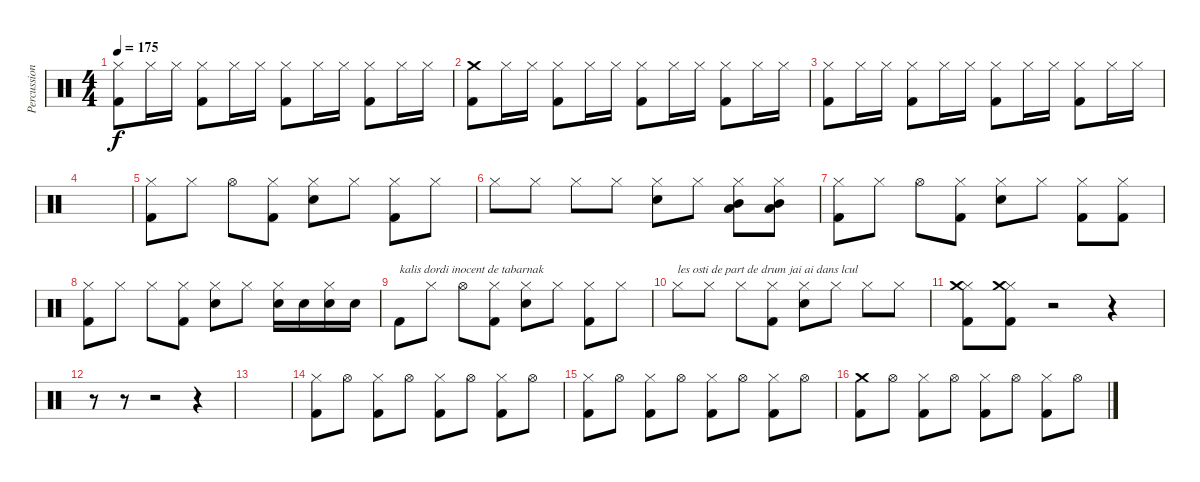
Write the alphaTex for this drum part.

\track ("Percussions" "Percussion") {instrument percussion}
\staff {score}
\articulation defaults
\ts (4 4)
\tempo 175
\clef neutral
\ks c
("Hi-Hat (closed)" "Kick (hit) 2").8{dy f} "Hi-Hat (closed)".16 "Hi-Hat (closed)".16 ("Hi-Hat (closed)" "Kick (hit) 2").8 "Hi-Hat (closed)".16 "Hi-Hat (closed)".16 ("Hi-Hat (closed)" "Kick (hit) 2").8 "Hi-Hat (closed)".16 "Hi-Hat (closed)".16 ("Hi-Hat (closed)" "Kick (hit) 2").8 "Hi-Hat (closed)".16 "Hi-Hat (closed)".16 |
("Crash medium (hit)" "Kick (hit) 2").8 "Hi-Hat (closed)".16 "Hi-Hat (closed)".16 ("Hi-Hat (closed)" "Kick (hit) 2").8 "Hi-Hat (closed)".16 "Hi-Hat (closed)".16 ("Hi-Hat (closed)" "Kick (hit) 2").8 "Hi-Hat (closed)".16 "Hi-Hat (closed)".16 ("Hi-Hat (closed)" "Kick (hit) 2").8 "Hi-Hat (closed)".16 "Hi-Hat (closed)".16 |
("Hi-Hat (closed)" "Kick (hit) 2").8 "Hi-Hat (closed)".16 "Hi-Hat (closed)".16 ("Hi-Hat (closed)" "Kick (hit) 2").8 "Hi-Hat (closed)".16 "Hi-Hat (closed)".16 ("Hi-Hat (closed)" "Kick (hit) 2").8 "Hi-Hat (closed)".16 "Hi-Hat (closed)".16 ("Hi-Hat (closed)" "Kick (hit) 2").8 "Hi-Hat (closed)".16 "Hi-Hat (closed)".16 |
|
("Hi-Hat (closed)" "Kick (hit) 2").8 "Hi-Hat (closed)".8 "Hi-Hat (open)".8 ("Hi-Hat (closed)" "Kick (hit) 2").8 ("Hi-Hat (closed)" "Snare (hit) 2").8 "Hi-Hat (closed)".8 ("Hi-Hat (closed)" "Kick (hit) 2").8 "Hi-Hat (closed)".8 |
"Hi-Hat (closed)".8 "Hi-Hat (closed)".8 "Hi-Hat (closed)".8 "Hi-Hat (closed)".8 ("Hi-Hat (closed)" "Snare (hit) 2").8 "Hi-Hat (closed)".8 ("Hi-Hat (closed)" "Mid Tom (hit)" "Low Tom (hit)").8 ("Hi-Hat (closed)" "Low Tom (hit)" "Mid Tom (hit)").8 |
("Hi-Hat (closed)" "Kick (hit) 2").8 "Hi-Hat (closed)".8 "Hi-Hat (open)".8 ("Hi-Hat (closed)" "Kick (hit) 2").8 ("Hi-Hat (closed)" "Snare (hit) 2").8 "Hi-Hat (closed)".8 ("Hi-Hat (closed)" "Kick (hit) 2").8 ("Hi-Hat (closed)" "Kick (hit) 2").8 |
("Hi-Hat (closed)" "Kick (hit) 2").8 "Hi-Hat (closed)".8 "Hi-Hat (closed)".8 ("Hi-Hat (closed)" "Kick (hit) 2").8 ("Hi-Hat (closed)" "Snare (hit) 2").8 "Hi-Hat (closed)".8 ("Hi-Hat (closed)" "Snare (hit) 2").16 "Snare (hit) 2".16 ("Hi-Hat (closed)" "Snare (hit) 2").16 "Snare (hit) 2".16 |
"Kick (hit) 2".8{txt "kalis dordi inocent de tabarnak"} "Hi-Hat (closed)".8 "Hi-Hat (open)".8 ("Hi-Hat (closed)" "Kick (hit) 2").8 ("Hi-Hat (closed)" "Snare (hit) 2").8 "Hi-Hat (closed)".8 ("Hi-Hat (closed)" "Kick (hit) 2").8 "Hi-Hat (closed)".8 |
"Hi-Hat (closed)".8{txt "les osti de part de drum jai ai dans lcul"} "Hi-Hat (closed)".8 "Hi-Hat (closed)".8 ("Hi-Hat (closed)" "Kick (hit) 2").8 ("Hi-Hat (closed)" "Snare (hit) 2").8 "Hi-Hat (closed)".8 "Hi-Hat (closed)".8 "Hi-Hat (closed)".8 |
("Hi-Hat (closed)" "Crash medium (hit)" "Kick (hit) 2").8 ("Hi-Hat (closed)" "Crash medium (hit)" "Kick (hit) 2").8 r.2 r.4 |
r.8 r.8 r.2 r.4 |
|
("Hi-Hat (closed)" "Kick (hit) 2").8 "Hi-Hat (open)".8 ("Hi-Hat (closed)" "Kick (hit) 2").8 "Hi-Hat (open)".8 ("Hi-Hat (closed)" "Kick (hit) 2").8 "Hi-Hat (open)".8 ("Hi-Hat (closed)" "Kick (hit) 2").8 "Hi-Hat (open)".8 |
("Hi-Hat (closed)" "Kick (hit) 2").8 "Hi-Hat (open)".8 ("Hi-Hat (closed)" "Kick (hit) 2").8 "Hi-Hat (open)".8 ("Hi-Hat (closed)" "Kick (hit) 2").8 "Hi-Hat (open)".8 ("Hi-Hat (closed)" "Kick (hit) 2").8 "Hi-Hat (open)".8 |
("Crash medium (hit)" "Kick (hit) 2").8 "Hi-Hat (open)".8 ("Hi-Hat (closed)" "Kick (hit) 2").8 "Hi-Hat (open)".8 ("Hi-Hat (closed)" "Kick (hit) 2").8 "Hi-Hat (open)".8 ("Hi-Hat (closed)" "Kick (hit) 2").8 "Hi-Hat (open)".8
